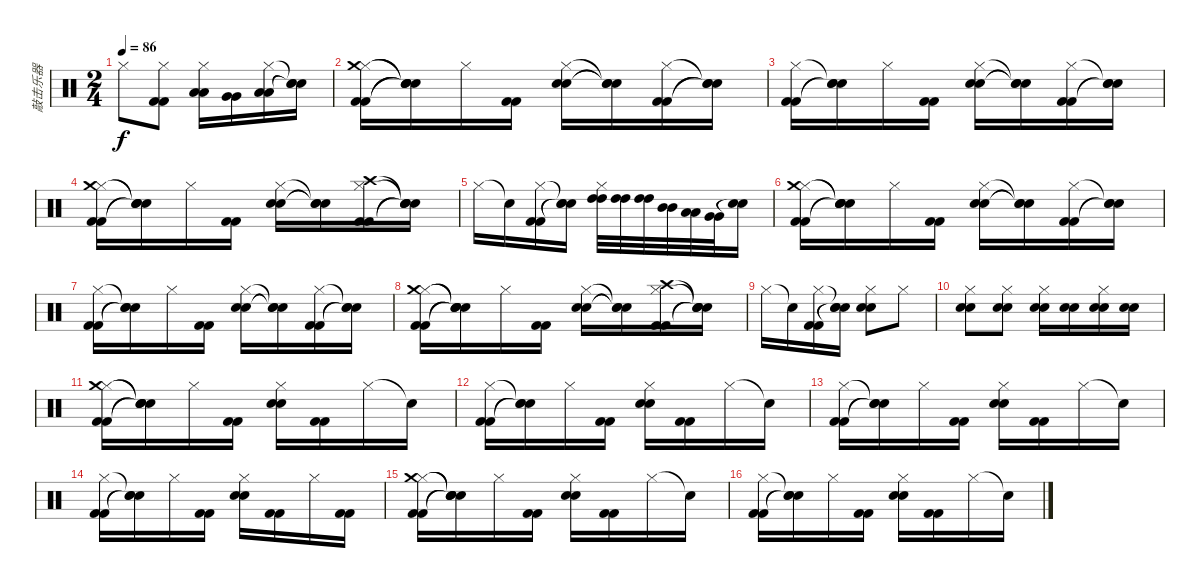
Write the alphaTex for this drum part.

\track ("敲击乐器" "敲击乐器") {instrument percussion}
\staff {score}
\articulation defaults
\ts (2 4)
\tempo 86
\clef neutral
\ks c "Hi-Hat (closed)".8{dy f}
("Hi-Hat (closed)" "Kick (hit) 2" "Kick (hit) 2").8 ("Hi-Hat (closed)" "Low Tom (hit)" "Low Tom (hit)").16 ("Very Low Tom (hit)" "Very Low Tom (hit)").16 ("Hi-Hat (closed)" "Low Floor Tom (hit)" "Low Floor Tom (hit)").16 ("Snare (hit)"{t} "Snare (hit)"{t} "Snare (hit)"{t}).16 |
("Hi-Hat (closed)" "Crash medium (hit)" "Kick (hit) 2" "Kick (hit) 2").16 ("Snare (hit)"{t} "Snare (hit)"{t} "Snare (hit)"{t} "Snare (hit)"{t}).16 "Hi-Hat (closed)".16 ("Kick (hit) 2" "Kick (hit) 2").16 ("Hi-Hat (closed)" "Electric Snare (hit)" "Electric Snare (hit)").16 ("Snare (hit)"{t} "Snare (hit)"{t} "Snare (hit)"{t}).16 ("Hi-Hat (closed)" "Kick (hit) 2" "Kick (hit) 2").16 ("Snare (hit)"{t} "Snare (hit)"{t} "Snare (hit)"{t}).16 |
("Hi-Hat (closed)" "Kick (hit) 2" "Kick (hit) 2").16 ("Snare (hit)"{t} "Snare (hit)"{t} "Snare (hit)"{t}).16 "Hi-Hat (closed)".16 ("Kick (hit) 2" "Kick (hit) 2").16 ("Hi-Hat (closed)" "Electric Snare (hit)" "Electric Snare (hit)").16 ("Snare (hit)"{t} "Snare (hit)"{t} "Snare (hit)"{t}).16 ("Hi-Hat (closed)" "Kick (hit) 2" "Kick (hit) 2").16 ("Snare (hit)"{t} "Snare (hit)"{t} "Snare (hit)"{t}).16 |
("Hi-Hat (closed)" "Crash medium (hit)" "Kick (hit) 2" "Kick (hit) 2").16 ("Snare (hit)"{t} "Snare (hit)"{t} "Snare (hit)"{t} "Snare (hit)"{t}).16 "Hi-Hat (closed)".16 ("Kick (hit) 2" "Kick (hit) 2").16 ("Hi-Hat (closed)" "Electric Snare (hit)" "Electric Snare (hit)").16 ("Snare (hit)"{t} "Snare (hit)"{t} "Snare (hit)"{t}).16 ("Hi-Hat (closed)" "Crash high (hit)" "Kick (hit) 2" "Kick (hit) 2").16 ("Snare (hit)"{t} "Snare (hit)"{t} "Snare (hit)"{t} "Snare (hit)"{t}).16 |
"Hi-Hat (closed)".16 "Snare (hit)"{t}.16 ("Hi-Hat (closed)" "Kick (hit) 2" "Kick (hit) 2").16 ("Snare (hit)"{t} "Snare (hit)"{t} "Snare (hit)"{t}).16 ("Hi-Hat (closed)" "High Tom (hit)" "High Tom (hit)").32 ("High Tom (hit)" "High Tom (hit)").32 ("High Tom (hit)" "High Tom (hit)").32 ("Mid Tom (hit)" "Mid Tom (hit)").32 ("Low Tom (hit)" "Low Tom (hit)").32 ("Very Low Tom (hit)" "Very Low Tom (hit)").32 ("Snare (hit)"{t} "Snare (hit)"{t}).16 |
("Hi-Hat (closed)" "Crash medium (hit)" "Kick (hit) 2" "Kick (hit) 2").16 ("Snare (hit)"{t} "Snare (hit)"{t} "Snare (hit)"{t} "Snare (hit)"{t}).16 "Hi-Hat (closed)".16 ("Kick (hit) 2" "Kick (hit) 2").16 ("Hi-Hat (closed)" "Electric Snare (hit)" "Electric Snare (hit)").16 ("Snare (hit)"{t} "Snare (hit)"{t} "Snare (hit)"{t}).16 ("Hi-Hat (closed)" "Kick (hit) 2" "Kick (hit) 2").16 ("Snare (hit)"{t} "Snare (hit)"{t} "Snare (hit)"{t}).16 |
("Hi-Hat (closed)" "Kick (hit) 2" "Kick (hit) 2").16 ("Snare (hit)"{t} "Snare (hit)"{t} "Snare (hit)"{t}).16 "Hi-Hat (closed)".16 ("Kick (hit) 2" "Kick (hit) 2").16 ("Hi-Hat (closed)" "Electric Snare (hit)" "Electric Snare (hit)").16 ("Snare (hit)"{t} "Snare (hit)"{t} "Snare (hit)"{t}).16 ("Hi-Hat (closed)" "Kick (hit) 2" "Kick (hit) 2").16 ("Snare (hit)"{t} "Snare (hit)"{t} "Snare (hit)"{t}).16 |
("Hi-Hat (closed)" "Crash medium (hit)" "Kick (hit) 2" "Kick (hit) 2").16 ("Snare (hit)"{t} "Snare (hit)"{t} "Snare (hit)"{t} "Snare (hit)"{t}).16 "Hi-Hat (closed)".16 ("Kick (hit) 2" "Kick (hit) 2").16 ("Hi-Hat (closed)" "Electric Snare (hit)" "Electric Snare (hit)").16 ("Snare (hit)"{t} "Snare (hit)"{t} "Snare (hit)"{t}).16 ("Hi-Hat (closed)" "Crash high (hit)" "Kick (hit) 2" "Kick (hit) 2").16 ("Snare (hit)"{t} "Snare (hit)"{t} "Snare (hit)"{t} "Snare (hit)"{t}).16 |
"Hi-Hat (closed)".16 "Snare (hit)"{t}.16 ("Hi-Hat (closed)" "Kick (hit) 2" "Kick (hit) 2").16 ("Snare (hit)"{t} "Snare (hit)"{t} "Snare (hit)"{t}).16 ("Hi-Hat (closed)" "Snare (hit) 2" "Snare (hit) 2").8 "Hi-Hat (closed)".8 |
("Hi-Hat (closed)" "Snare (hit) 2" "Snare (hit) 2").8 ("Hi-Hat (closed)" "Snare (hit) 2" "Snare (hit) 2").8 ("Hi-Hat (closed)" "Snare (hit) 2" "Snare (hit) 2").16 ("Snare (hit) 2" "Snare (hit) 2").16 ("Hi-Hat (closed)" "Snare (hit) 2" "Snare (hit) 2").16 ("Snare (hit) 2" "Snare (hit) 2").16 |
("Hi-Hat (closed)" "Crash medium (hit)" "Kick (hit) 2" "Kick (hit) 2").16 ("Snare (hit)"{t} "Snare (hit)"{t} "Snare (hit)"{t} "Snare (hit)"{t}).16 "Hi-Hat (closed)".16 ("Kick (hit) 2" "Kick (hit) 2").16 ("Hi-Hat (closed)" "Electric Snare (hit)" "Electric Snare (hit)").16 ("Kick (hit) 2" "Kick (hit) 2").16 "Hi-Hat (closed)".16 "Snare (hit)"{t}.16 |
("Hi-Hat (closed)" "Kick (hit) 2" "Kick (hit) 2").16 ("Snare (hit)"{t} "Snare (hit)"{t} "Snare (hit)"{t}).16 "Hi-Hat (closed)".16 ("Kick (hit) 2" "Kick (hit) 2").16 ("Hi-Hat (closed)" "Electric Snare (hit)" "Electric Snare (hit)").16 ("Kick (hit) 2" "Kick (hit) 2").16 "Hi-Hat (closed)".16 "Snare (hit)"{t}.16 |
("Hi-Hat (closed)" "Kick (hit) 2" "Kick (hit) 2").16 ("Snare (hit)"{t} "Snare (hit)"{t} "Snare (hit)"{t}).16 "Hi-Hat (closed)".16 ("Kick (hit) 2" "Kick (hit) 2").16 ("Hi-Hat (closed)" "Electric Snare (hit)" "Electric Snare (hit)").16 ("Kick (hit) 2" "Kick (hit) 2").16 "Hi-Hat (closed)".16 "Snare (hit)"{t}.16 |
("Hi-Hat (closed)" "Kick (hit) 2" "Kick (hit) 2").16 ("Snare (hit)"{t} "Snare (hit)"{t} "Snare (hit)"{t}).16 "Hi-Hat (closed)".16 ("Kick (hit) 2" "Kick (hit) 2").16 ("Hi-Hat (closed)" "Electric Snare (hit)" "Electric Snare (hit)").16 ("Kick (hit) 2" "Kick (hit) 2").16 "Hi-Hat (closed)".16 ("Kick (hit) 2" "Kick (hit) 2").16 |
("Hi-Hat (closed)" "Crash medium (hit)" "Kick (hit) 2" "Kick (hit) 2").16 ("Snare (hit)"{t} "Snare (hit)"{t} "Snare (hit)"{t} "Snare (hit)"{t}).16 "Hi-Hat (closed)".16 ("Kick (hit) 2" "Kick (hit) 2").16 ("Hi-Hat (closed)" "Electric Snare (hit)" "Electric Snare (hit)").16 ("Kick (hit) 2" "Kick (hit) 2").16 "Hi-Hat (closed)".16 "Snare (hit)"{t}.16 |
("Hi-Hat (closed)" "Kick (hit) 2" "Kick (hit) 2").16 ("Snare (hit)"{t} "Snare (hit)"{t} "Snare (hit)"{t}).16 "Hi-Hat (closed)".16 ("Kick (hit) 2" "Kick (hit) 2").16 ("Hi-Hat (closed)" "Electric Snare (hit)" "Electric Snare (hit)").16 ("Kick (hit) 2" "Kick (hit) 2").16 "Hi-Hat (closed)".16 "Snare (hit)"{t}.16
